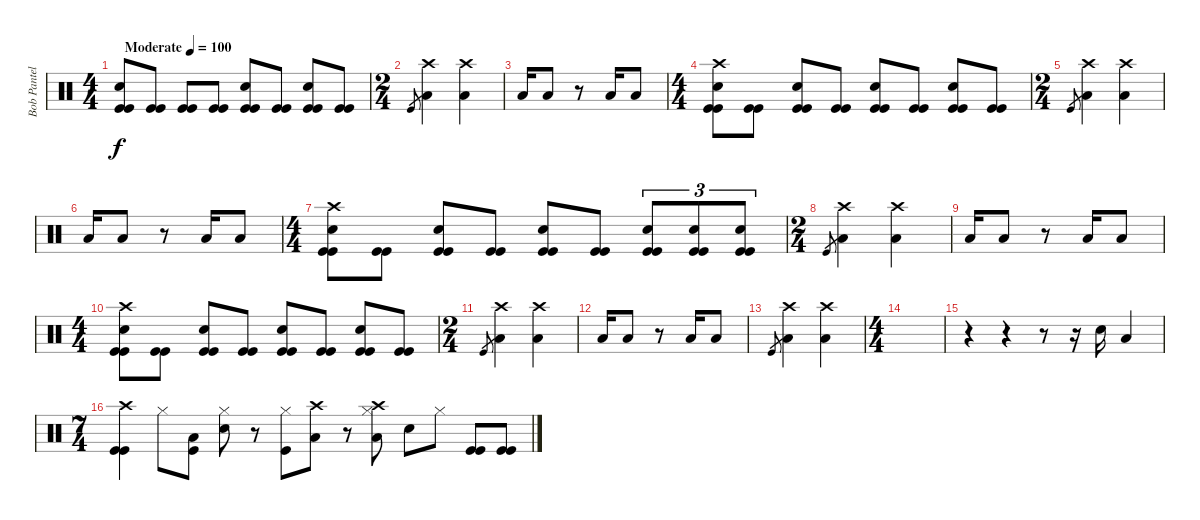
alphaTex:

\track ("Bob Pantella" "Bob Pantel") {instrument percussion}
\staff {score}
\articulation defaults
\ts (4 4)
\tempo (100 "Moderate")
\clef neutral
\ks c
("Electric Snare (hit)" "Kick (hit)" "Kick (hit)").8{dy f} ("Kick (hit)" "Kick (hit)").8 ("Kick (hit)" "Kick (hit)").8 ("Kick (hit)" "Kick (hit)").8 ("Electric Snare (hit)" "Kick (hit)" "Kick (hit)").8 ("Kick (hit)" "Kick (hit)").8 ("Electric Snare (hit)" "Kick (hit)" "Kick (hit)").8 ("Kick (hit)" "Kick (hit)").8 |
\ts (2 4)
"Kick (hit)".8{gr} ("Crash high (hit)" "Low Floor Tom (hit)").4 ("Crash high (hit)" "Low Floor Tom (hit)").4 |
"Low Floor Tom (hit)".16 "Low Floor Tom (hit)".8 r.8 "Low Floor Tom (hit)".16 "Low Floor Tom (hit)".8 |
\ts (4 4)
("Crash high (hit)" "Electric Snare (hit)" "Kick (hit)" "Kick (hit)").8 ("Kick (hit)" "Kick (hit)").8 ("Electric Snare (hit)" "Kick (hit)" "Kick (hit)").8 ("Kick (hit)" "Kick (hit)").8 ("Electric Snare (hit)" "Kick (hit)" "Kick (hit)").8 ("Kick (hit)" "Kick (hit)").8 ("Electric Snare (hit)" "Kick (hit)" "Kick (hit)").8 ("Kick (hit)" "Kick (hit)").8 |
\ts (2 4)
"Kick (hit)".8{gr} ("Crash high (hit)" "Low Floor Tom (hit)").4 ("Crash high (hit)" "Low Floor Tom (hit)").4 |
"Low Floor Tom (hit)".16 "Low Floor Tom (hit)".8 r.8 "Low Floor Tom (hit)".16 "Low Floor Tom (hit)".8 |
\ts (4 4)
("Crash high (hit)" "Electric Snare (hit)" "Kick (hit)" "Kick (hit)").8 ("Kick (hit)" "Kick (hit)").8 ("Electric Snare (hit)" "Kick (hit)" "Kick (hit)").8 ("Kick (hit)" "Kick (hit)").8 ("Electric Snare (hit)" "Kick (hit)" "Kick (hit)").8 ("Kick (hit)" "Kick (hit)").8 ("Electric Snare (hit)" "Kick (hit)" "Kick (hit)").8{tu (3 2)} ("Electric Snare (hit)" "Kick (hit)" "Kick (hit)").8{tu (3 2)} ("Electric Snare (hit)" "Kick (hit)" "Kick (hit)").8{tu (3 2)} |
\ts (2 4)
"Kick (hit)".8{gr} ("Crash high (hit)" "Low Floor Tom (hit)").4 ("Crash high (hit)" "Low Floor Tom (hit)").4 |
"Low Floor Tom (hit)".16 "Low Floor Tom (hit)".8 r.8 "Low Floor Tom (hit)".16 "Low Floor Tom (hit)".8 |
\ts (4 4)
("Crash high (hit)" "Electric Snare (hit)" "Kick (hit)" "Kick (hit)").8 ("Kick (hit)" "Kick (hit)").8 ("Electric Snare (hit)" "Kick (hit)" "Kick (hit)").8 ("Kick (hit)" "Kick (hit)").8 ("Electric Snare (hit)" "Kick (hit)" "Kick (hit)").8 ("Kick (hit)" "Kick (hit)").8 ("Electric Snare (hit)" "Kick (hit)" "Kick (hit)").8 ("Kick (hit)" "Kick (hit)").8 |
\ts (2 4)
"Kick (hit)".8{gr} ("Crash high (hit)" "Low Floor Tom (hit)").4 ("Crash high (hit)" "Low Floor Tom (hit)").4 |
"Low Floor Tom (hit)".16 "Low Floor Tom (hit)".8 r.8 "Low Floor Tom (hit)".16 "Low Floor Tom (hit)".8 |
"Kick (hit)".8{gr} ("Crash high (hit)" "Low Floor Tom (hit)").4 ("Crash high (hit)" "Low Floor Tom (hit)").4 |
\ts (4 4)
|
r.4 r.4 r.8 r.16 "Electric Snare (hit)".16 "Low Floor Tom (hit)".4 |
\ts (7 4)
("Crash high (hit)" "Kick (hit)" "Kick (hit)").4 "Hi-Hat (closed)".8 ("Low Floor Tom (hit)" "Kick (hit)").8 ("Hi-Hat (closed)" "Electric Snare (hit)").8 r.8 ("Hi-Hat (closed)" "Kick (hit)").8 ("Crash high (hit)" "Low Floor Tom (hit)").8 r.8 ("Crash high (hit)" "Hi-Hat (closed)" "Low Floor Tom (hit)").8 "Electric Snare (hit)".8 "Hi-Hat (closed)".8 ("Kick (hit)" "Kick (hit)").8 ("Kick (hit)" "Kick (hit)").8
